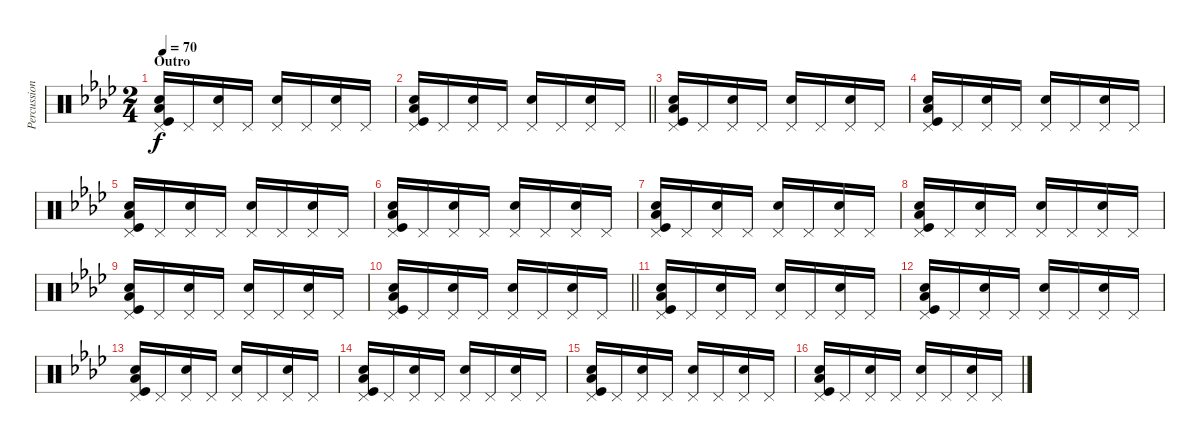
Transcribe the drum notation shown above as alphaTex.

\track ("Percussions" "Percussion") {instrument percussion}
\staff {score}
\articulation defaults
\ts (2 4)
\section ("" "Outro")
\tempo 70
\clef neutral
\ks fminor
("Electric Snare (hit)" "Kick (hit)" "Pedal Hi-Hat (hit)" "Low Floor Tom (hit)").16{dy f} "Pedal Hi-Hat (hit)".16 ("Electric Snare (hit)" "Pedal Hi-Hat (hit)").16 "Pedal Hi-Hat (hit)".16 ("Electric Snare (hit)" "Pedal Hi-Hat (hit)").16 "Pedal Hi-Hat (hit)".16 ("Electric Snare (hit)" "Pedal Hi-Hat (hit)").16 "Pedal Hi-Hat (hit)".16 |
\barLineRight lightlight
("Electric Snare (hit)" "Kick (hit)" "Pedal Hi-Hat (hit)" "Low Floor Tom (hit)").16 "Pedal Hi-Hat (hit)".16 ("Electric Snare (hit)" "Pedal Hi-Hat (hit)").16 "Pedal Hi-Hat (hit)".16 ("Electric Snare (hit)" "Pedal Hi-Hat (hit)").16 "Pedal Hi-Hat (hit)".16 ("Electric Snare (hit)" "Pedal Hi-Hat (hit)").16 "Pedal Hi-Hat (hit)".16 |
("Electric Snare (hit)" "Kick (hit)" "Pedal Hi-Hat (hit)" "Low Floor Tom (hit)").16 "Pedal Hi-Hat (hit)".16 ("Electric Snare (hit)" "Pedal Hi-Hat (hit)").16 "Pedal Hi-Hat (hit)".16 ("Electric Snare (hit)" "Pedal Hi-Hat (hit)").16 "Pedal Hi-Hat (hit)".16 ("Electric Snare (hit)" "Pedal Hi-Hat (hit)").16 "Pedal Hi-Hat (hit)".16 |
("Electric Snare (hit)" "Kick (hit)" "Pedal Hi-Hat (hit)" "Low Floor Tom (hit)").16 "Pedal Hi-Hat (hit)".16 ("Electric Snare (hit)" "Pedal Hi-Hat (hit)").16 "Pedal Hi-Hat (hit)".16 ("Electric Snare (hit)" "Pedal Hi-Hat (hit)").16 "Pedal Hi-Hat (hit)".16 ("Electric Snare (hit)" "Pedal Hi-Hat (hit)").16 "Pedal Hi-Hat (hit)".16 |
("Electric Snare (hit)" "Kick (hit)" "Pedal Hi-Hat (hit)" "Low Floor Tom (hit)").16 "Pedal Hi-Hat (hit)".16 ("Electric Snare (hit)" "Pedal Hi-Hat (hit)").16 "Pedal Hi-Hat (hit)".16 ("Electric Snare (hit)" "Pedal Hi-Hat (hit)").16 "Pedal Hi-Hat (hit)".16 ("Electric Snare (hit)" "Pedal Hi-Hat (hit)").16 "Pedal Hi-Hat (hit)".16 |
("Electric Snare (hit)" "Kick (hit)" "Pedal Hi-Hat (hit)" "Low Floor Tom (hit)").16 "Pedal Hi-Hat (hit)".16 ("Electric Snare (hit)" "Pedal Hi-Hat (hit)").16 "Pedal Hi-Hat (hit)".16 ("Electric Snare (hit)" "Pedal Hi-Hat (hit)").16 "Pedal Hi-Hat (hit)".16 ("Electric Snare (hit)" "Pedal Hi-Hat (hit)").16 "Pedal Hi-Hat (hit)".16 |
("Electric Snare (hit)" "Kick (hit)" "Pedal Hi-Hat (hit)" "Low Floor Tom (hit)").16 "Pedal Hi-Hat (hit)".16 ("Electric Snare (hit)" "Pedal Hi-Hat (hit)").16 "Pedal Hi-Hat (hit)".16 ("Electric Snare (hit)" "Pedal Hi-Hat (hit)").16 "Pedal Hi-Hat (hit)".16 ("Electric Snare (hit)" "Pedal Hi-Hat (hit)").16 "Pedal Hi-Hat (hit)".16 |
("Electric Snare (hit)" "Kick (hit)" "Pedal Hi-Hat (hit)" "Low Floor Tom (hit)").16 "Pedal Hi-Hat (hit)".16 ("Electric Snare (hit)" "Pedal Hi-Hat (hit)").16 "Pedal Hi-Hat (hit)".16 ("Electric Snare (hit)" "Pedal Hi-Hat (hit)").16 "Pedal Hi-Hat (hit)".16 ("Electric Snare (hit)" "Pedal Hi-Hat (hit)").16 "Pedal Hi-Hat (hit)".16 |
("Electric Snare (hit)" "Kick (hit)" "Pedal Hi-Hat (hit)" "Low Floor Tom (hit)").16 "Pedal Hi-Hat (hit)".16 ("Electric Snare (hit)" "Pedal Hi-Hat (hit)").16 "Pedal Hi-Hat (hit)".16 ("Electric Snare (hit)" "Pedal Hi-Hat (hit)").16 "Pedal Hi-Hat (hit)".16 ("Electric Snare (hit)" "Pedal Hi-Hat (hit)").16 "Pedal Hi-Hat (hit)".16 |
\barLineRight lightlight
("Electric Snare (hit)" "Kick (hit)" "Pedal Hi-Hat (hit)" "Low Floor Tom (hit)").16 "Pedal Hi-Hat (hit)".16 ("Electric Snare (hit)" "Pedal Hi-Hat (hit)").16 "Pedal Hi-Hat (hit)".16 ("Electric Snare (hit)" "Pedal Hi-Hat (hit)").16 "Pedal Hi-Hat (hit)".16 ("Electric Snare (hit)" "Pedal Hi-Hat (hit)").16 "Pedal Hi-Hat (hit)".16 |
("Electric Snare (hit)" "Kick (hit)" "Pedal Hi-Hat (hit)" "Low Floor Tom (hit)").16 "Pedal Hi-Hat (hit)".16 ("Electric Snare (hit)" "Pedal Hi-Hat (hit)").16 "Pedal Hi-Hat (hit)".16 ("Electric Snare (hit)" "Pedal Hi-Hat (hit)").16 "Pedal Hi-Hat (hit)".16 ("Electric Snare (hit)" "Pedal Hi-Hat (hit)").16 "Pedal Hi-Hat (hit)".16 |
("Electric Snare (hit)" "Kick (hit)" "Pedal Hi-Hat (hit)" "Low Floor Tom (hit)").16 "Pedal Hi-Hat (hit)".16 ("Electric Snare (hit)" "Pedal Hi-Hat (hit)").16 "Pedal Hi-Hat (hit)".16 ("Electric Snare (hit)" "Pedal Hi-Hat (hit)").16 "Pedal Hi-Hat (hit)".16 ("Electric Snare (hit)" "Pedal Hi-Hat (hit)").16 "Pedal Hi-Hat (hit)".16 |
("Electric Snare (hit)" "Kick (hit)" "Pedal Hi-Hat (hit)" "Low Floor Tom (hit)").16 "Pedal Hi-Hat (hit)".16 ("Electric Snare (hit)" "Pedal Hi-Hat (hit)").16 "Pedal Hi-Hat (hit)".16 ("Electric Snare (hit)" "Pedal Hi-Hat (hit)").16 "Pedal Hi-Hat (hit)".16 ("Electric Snare (hit)" "Pedal Hi-Hat (hit)").16 "Pedal Hi-Hat (hit)".16 |
("Electric Snare (hit)" "Kick (hit)" "Pedal Hi-Hat (hit)" "Low Floor Tom (hit)").16 "Pedal Hi-Hat (hit)".16 ("Electric Snare (hit)" "Pedal Hi-Hat (hit)").16 "Pedal Hi-Hat (hit)".16 ("Electric Snare (hit)" "Pedal Hi-Hat (hit)").16 "Pedal Hi-Hat (hit)".16 ("Electric Snare (hit)" "Pedal Hi-Hat (hit)").16 "Pedal Hi-Hat (hit)".16 |
("Electric Snare (hit)" "Kick (hit)" "Pedal Hi-Hat (hit)" "Low Floor Tom (hit)").16 "Pedal Hi-Hat (hit)".16 ("Electric Snare (hit)" "Pedal Hi-Hat (hit)").16 "Pedal Hi-Hat (hit)".16 ("Electric Snare (hit)" "Pedal Hi-Hat (hit)").16 "Pedal Hi-Hat (hit)".16 ("Electric Snare (hit)" "Pedal Hi-Hat (hit)").16 "Pedal Hi-Hat (hit)".16 |
("Electric Snare (hit)" "Kick (hit)" "Pedal Hi-Hat (hit)" "Low Floor Tom (hit)").16 "Pedal Hi-Hat (hit)".16 ("Electric Snare (hit)" "Pedal Hi-Hat (hit)").16 "Pedal Hi-Hat (hit)".16 ("Electric Snare (hit)" "Pedal Hi-Hat (hit)").16 "Pedal Hi-Hat (hit)".16 ("Electric Snare (hit)" "Pedal Hi-Hat (hit)").16 "Pedal Hi-Hat (hit)".16
